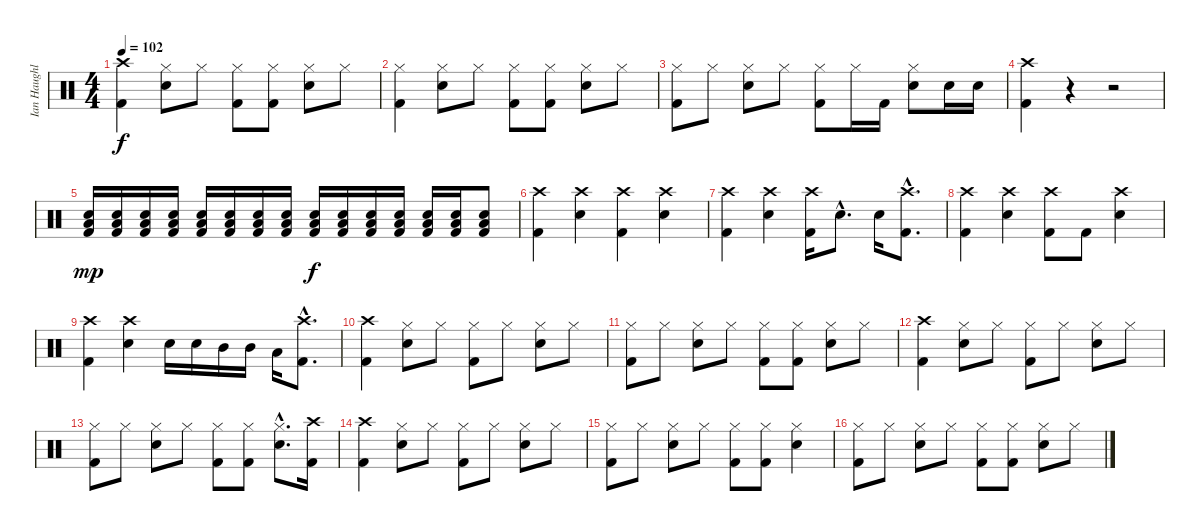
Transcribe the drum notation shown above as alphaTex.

\track ("Ian Haughland" "Ian Haughl") {instrument percussion}
\staff {score}
\articulation defaults
\ts (4 4)
\tempo 102
\clef neutral
\ks c
("Crash high (hit)" "Kick (hit) 2").4{dy f} ("Hi-Hat (closed)" "Snare (hit) 2").8 "Hi-Hat (closed)".8 ("Hi-Hat (closed)" "Kick (hit) 2").8 ("Hi-Hat (closed)" "Kick (hit) 2").8 ("Hi-Hat (closed)" "Snare (hit) 2").8 "Hi-Hat (closed)".8 |
("Hi-Hat (closed)" "Kick (hit) 2").4 ("Hi-Hat (closed)" "Snare (hit) 2").8 "Hi-Hat (closed)".8 ("Hi-Hat (closed)" "Kick (hit) 2").8 ("Hi-Hat (closed)" "Kick (hit) 2").8 ("Hi-Hat (closed)" "Snare (hit) 2").8 "Hi-Hat (closed)".8 |
("Hi-Hat (closed)" "Kick (hit) 2").8 "Hi-Hat (closed)".8 ("Hi-Hat (closed)" "Snare (hit) 2").8 "Hi-Hat (closed)".8 ("Hi-Hat (closed)" "Kick (hit) 2").8 "Hi-Hat (closed)".16 "Kick (hit) 2".16 ("Hi-Hat (closed)" "Snare (hit) 2").8 "Snare (hit) 2".16 "Snare (hit) 2".16 |
("Crash high (hit)" "Kick (hit) 2").4 r.4 r.2 |
("Kick (hit) 2" "Snare (hit) 2" "Low Tom (hit)").16{dy mp} ("Kick (hit) 2" "Snare (hit) 2" "Low Tom (hit)").16 ("Kick (hit) 2" "Snare (hit) 2" "Low Tom (hit)").16 ("Kick (hit) 2" "Snare (hit) 2" "Low Tom (hit)").16 ("Kick (hit) 2" "Snare (hit) 2" "Low Tom (hit)").16 ("Kick (hit) 2" "Snare (hit) 2" "Low Tom (hit)").16 ("Kick (hit) 2" "Snare (hit) 2" "Low Tom (hit)").16 ("Kick (hit) 2" "Snare (hit) 2" "Low Tom (hit)").16 ("Kick (hit) 2" "Snare (hit) 2" "Low Tom (hit)").16{dy f} ("Kick (hit) 2" "Snare (hit) 2" "Low Tom (hit)").16 ("Kick (hit) 2" "Snare (hit) 2" "Low Tom (hit)").16 ("Kick (hit) 2" "Snare (hit) 2" "Low Tom (hit)").16 ("Kick (hit) 2" "Snare (hit) 2" "Low Tom (hit)").16 ("Kick (hit) 2" "Snare (hit) 2" "Low Tom (hit)").16 ("Kick (hit) 2" "Snare (hit) 2" "Low Tom (hit)").8 |
("Crash high (hit)" "Kick (hit) 2").4 ("Crash high (hit)" "Snare (hit) 2").4 ("Crash high (hit)" "Kick (hit) 2").4 ("Crash high (hit)" "Snare (hit) 2").4 |
("Crash high (hit)" "Kick (hit) 2").4 ("Crash high (hit)" "Snare (hit) 2").4 ("Crash high (hit)" "Kick (hit) 2").16 "Snare (hit) 2"{hac}.8{d} "Snare (hit) 2".16 ("Crash high (hit)"{hac} "Kick (hit) 2"{hac}).8{d} |
("Crash high (hit)" "Kick (hit) 2").4 ("Crash high (hit)" "Snare (hit) 2").4 ("Crash high (hit)" "Kick (hit) 2").8 "Kick (hit) 2".8 ("Crash high (hit)" "Snare (hit) 2").4 |
("Crash high (hit)" "Kick (hit) 2").4 ("Crash high (hit)" "Snare (hit) 2").4 "Snare (hit) 2".16 "Snare (hit) 2".16 "Mid Tom (hit)".16 "Mid Tom (hit)".16 "Low Tom (hit)".16 ("Crash high (hit)"{hac} "Kick (hit) 2"{hac}).8{d} |
("Crash high (hit)" "Kick (hit) 2").4 ("Hi-Hat (closed)" "Snare (hit) 2").8 "Hi-Hat (closed)".8 ("Hi-Hat (closed)" "Kick (hit) 2").8 "Hi-Hat (closed)".8 ("Hi-Hat (closed)" "Snare (hit) 2").8 "Hi-Hat (closed)".8 |
("Hi-Hat (closed)" "Kick (hit) 2").8 "Hi-Hat (closed)".8 ("Hi-Hat (closed)" "Snare (hit) 2").8 "Hi-Hat (closed)".8 ("Hi-Hat (closed)" "Kick (hit) 2").8 ("Hi-Hat (closed)" "Kick (hit) 2").8 ("Hi-Hat (closed)" "Snare (hit) 2").8 "Hi-Hat (closed)".8 |
("Crash high (hit)" "Kick (hit) 2").4 ("Hi-Hat (closed)" "Snare (hit) 2").8 "Hi-Hat (closed)".8 ("Hi-Hat (closed)" "Kick (hit) 2").8 "Hi-Hat (closed)".8 ("Hi-Hat (closed)" "Snare (hit) 2").8 "Hi-Hat (closed)".8 |
("Hi-Hat (closed)" "Kick (hit) 2").8 "Hi-Hat (closed)".8 ("Hi-Hat (closed)" "Snare (hit) 2").8 "Hi-Hat (closed)".8 ("Hi-Hat (closed)" "Kick (hit) 2").8 ("Hi-Hat (closed)" "Kick (hit) 2").8 ("Hi-Hat (closed)"{hac} "Snare (hit) 2"{hac}).8{d} ("Crash high (hit)" "Kick (hit) 2").16 |
("Crash high (hit)" "Kick (hit) 2").4 ("Hi-Hat (closed)" "Snare (hit) 2").8 "Hi-Hat (closed)".8 ("Hi-Hat (closed)" "Kick (hit) 2").8 "Hi-Hat (closed)".8 ("Hi-Hat (closed)" "Snare (hit) 2").8 "Hi-Hat (closed)".8 |
("Hi-Hat (closed)" "Kick (hit) 2").8 "Hi-Hat (closed)".8 ("Hi-Hat (closed)" "Snare (hit) 2").8 "Hi-Hat (closed)".8 ("Hi-Hat (closed)" "Kick (hit) 2").8 ("Hi-Hat (closed)" "Kick (hit) 2").8 ("Hi-Hat (closed)" "Snare (hit) 2").4 |
("Hi-Hat (closed)" "Kick (hit) 2").8 "Hi-Hat (closed)".8 ("Hi-Hat (closed)" "Snare (hit) 2").8 "Hi-Hat (closed)".8 ("Hi-Hat (closed)" "Kick (hit) 2").8 ("Hi-Hat (closed)" "Kick (hit) 2").8 ("Hi-Hat (closed)" "Snare (hit) 2").8 "Hi-Hat (closed)".8
